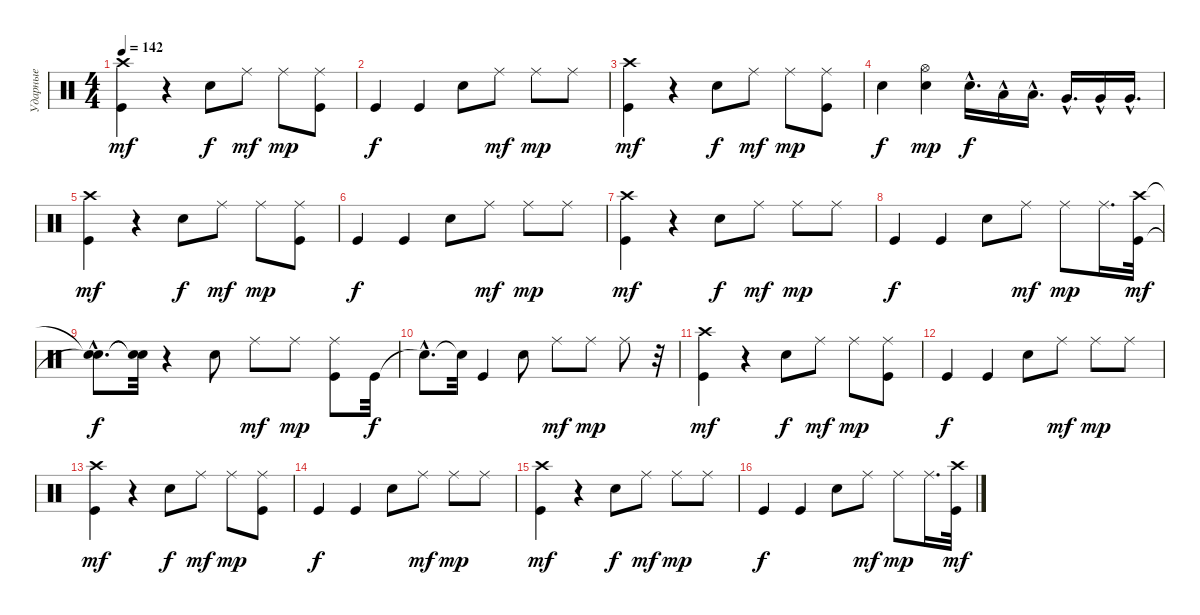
\track ("Ударные" "Ударные") {instrument percussion}
\staff {score}
\articulation defaults
\ts (4 4)
\tempo 142
\clef neutral
\ks c
("Kick (hit)" "Crash high (hit)").4{dy mf} r.4 "Electric Snare (hit)".8{dy f} "Ride (middle)".8{dy mf} "Ride (middle)".8{dy mp} ("Kick (hit)" "Ride (middle)").8 |
"Kick (hit)".4{dy f} "Kick (hit)".4 "Electric Snare (hit)".8 "Ride (middle)".8{dy mf} "Ride (middle)".8{dy mp} "Ride (middle)".8 |
("Crash high (hit)" "Kick (hit)").4{dy mf} r.4 "Electric Snare (hit)".8{dy f} "Ride (middle)".8{dy mf} "Ride (middle)".8{dy mp} ("Kick (hit)" "Ride (middle)").8 |
"Electric Snare (hit)".4{dy f} ("Hi-Hat (open)" "Electric Snare (hit)").4{dy mp} "Electric Snare (hit)"{hac}.16{d dy f} "Low Tom (hit)"{hac}.16 "Low Tom (hit)"{hac}.16{d} "Very Low Tom (hit)"{hac}.16{d} "Very Low Tom (hit)"{hac}.16 "Very Low Tom (hit)"{hac}.16{d} |
("Crash high (hit)" "Kick (hit)").4{dy mf} r.4 "Electric Snare (hit)".8{dy f} "Ride (middle)".8{dy mf} "Ride (middle)".8{dy mp} ("Kick (hit)" "Ride (middle)").8 |
"Kick (hit)".4{dy f} "Kick (hit)".4 "Electric Snare (hit)".8 "Ride (middle)".8{dy mf} "Ride (middle)".8{dy mp} "Ride (middle)".8 |
("Crash high (hit)" "Kick (hit)").4{dy mf} r.4 "Electric Snare (hit)".8{dy f} "Ride (middle)".8{dy mf} "Ride (middle)".8{dy mp} "Ride (middle)".8 |
"Kick (hit)".4{dy f} "Kick (hit)".4 "Electric Snare (hit)".8 "Ride (middle)".8{dy mf} "Ride (middle)".8{dy mp} "Ride (middle)".16{d} ("Crash high (hit)" "Kick (hit)").32{dy mf} |
("Snare (hit)"{hac t} "Snare (hit)"{hac t}).8{d dy f} ("Snare (hit)"{t} "Snare (hit)"{t}).32 r.4 "Electric Snare (hit)".8 "Ride (middle)".8{dy mf} "Ride (middle)".8{dy mp} ("Kick (hit)" "Ride (middle)").8 "Kick (hit)".32{dy f} |
"Snare (hit)"{hac t}.8{d} "Snare (hit)"{t}.32 "Kick (hit)".4 "Electric Snare (hit)".8 "Ride (middle)".8{dy mf} "Ride (middle)".8{dy mp} "Ride (middle)".8 r.32 |
("Crash high (hit)" "Kick (hit)").4{dy mf} r.4 "Electric Snare (hit)".8{dy f} "Ride (middle)".8{dy mf} "Ride (middle)".8{dy mp} ("Kick (hit)" "Ride (middle)").8 |
"Kick (hit)".4{dy f} "Kick (hit)".4 "Electric Snare (hit)".8 "Ride (middle)".8{dy mf} "Ride (middle)".8{dy mp} "Ride (middle)".8 |
("Crash high (hit)" "Kick (hit)").4{dy mf} r.4 "Electric Snare (hit)".8{dy f} "Ride (middle)".8{dy mf} "Ride (middle)".8{dy mp} ("Kick (hit)" "Ride (middle)").8 |
"Kick (hit)".4{dy f} "Kick (hit)".4 "Electric Snare (hit)".8 "Ride (middle)".8{dy mf} "Ride (middle)".8{dy mp} "Ride (middle)".8 |
("Crash high (hit)" "Kick (hit)").4{dy mf} r.4 "Electric Snare (hit)".8{dy f} "Ride (middle)".8{dy mf} "Ride (middle)".8{dy mp} "Ride (middle)".8 |
"Kick (hit)".4{dy f} "Kick (hit)".4 "Electric Snare (hit)".8 "Ride (middle)".8{dy mf} "Ride (middle)".8{dy mp} "Ride (middle)".16{d} ("Crash high (hit)" "Kick (hit)").32{dy mf}
